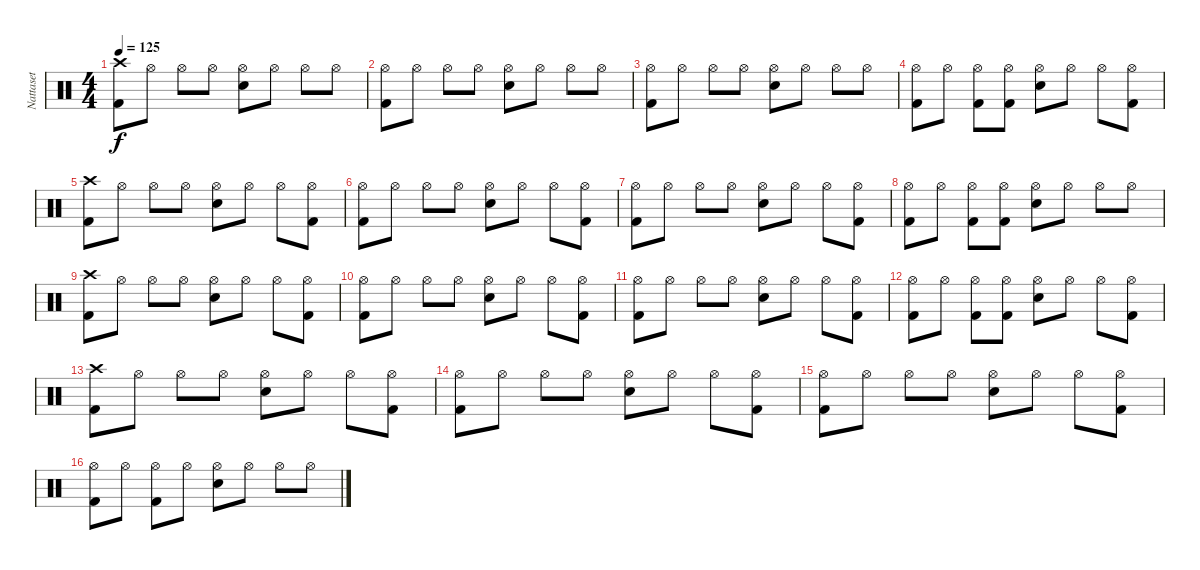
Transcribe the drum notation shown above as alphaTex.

\track ("Nattaset" "Nattaset") {instrument percussion}
\staff {score}
\articulation defaults
\ts (4 4)
\tempo 125
\clef neutral
\ks c
("Kick (hit) 2" "Crash high (hit)").8{dy f} "Hi-Hat (open)".8 "Hi-Hat (open)".8 "Hi-Hat (open)".8 ("Snare (hit) 2" "Hi-Hat (open)").8 "Hi-Hat (open)".8 "Hi-Hat (open)".8 "Hi-Hat (open)".8 |
("Kick (hit) 2" "Hi-Hat (open)").8 "Hi-Hat (open)".8 "Hi-Hat (open)".8 "Hi-Hat (open)".8 ("Snare (hit) 2" "Hi-Hat (open)").8 "Hi-Hat (open)".8 "Hi-Hat (open)".8 "Hi-Hat (open)".8 |
("Kick (hit) 2" "Hi-Hat (open)").8 "Hi-Hat (open)".8 "Hi-Hat (open)".8 "Hi-Hat (open)".8 ("Snare (hit) 2" "Hi-Hat (open)").8 "Hi-Hat (open)".8 "Hi-Hat (open)".8 "Hi-Hat (open)".8 |
("Kick (hit) 2" "Hi-Hat (open)").8 "Hi-Hat (open)".8 ("Kick (hit) 2" "Hi-Hat (open)").8 ("Kick (hit) 2" "Hi-Hat (open)").8 ("Snare (hit) 2" "Hi-Hat (open)").8 "Hi-Hat (open)".8 "Hi-Hat (open)".8 ("Kick (hit) 2" "Hi-Hat (open)").8 |
("Kick (hit) 2" "Crash high (hit)").8 "Hi-Hat (open)".8 "Hi-Hat (open)".8 "Hi-Hat (open)".8 ("Snare (hit) 2" "Hi-Hat (open)").8 "Hi-Hat (open)".8 "Hi-Hat (open)".8 ("Kick (hit) 2" "Hi-Hat (open)").8 |
("Kick (hit) 2" "Hi-Hat (open)").8 "Hi-Hat (open)".8 "Hi-Hat (open)".8 "Hi-Hat (open)".8 ("Snare (hit) 2" "Hi-Hat (open)").8 "Hi-Hat (open)".8 "Hi-Hat (open)".8 ("Kick (hit) 2" "Hi-Hat (open)").8 |
("Kick (hit) 2" "Hi-Hat (open)").8 "Hi-Hat (open)".8 "Hi-Hat (open)".8 "Hi-Hat (open)".8 ("Snare (hit) 2" "Hi-Hat (open)").8 "Hi-Hat (open)".8 "Hi-Hat (open)".8 ("Kick (hit) 2" "Hi-Hat (open)").8 |
("Kick (hit) 2" "Hi-Hat (open)").8 "Hi-Hat (open)".8 ("Kick (hit) 2" "Hi-Hat (open)").8 ("Kick (hit) 2" "Hi-Hat (open)").8 ("Snare (hit) 2" "Hi-Hat (open)").8 "Hi-Hat (open)".8 "Hi-Hat (open)".8 "Hi-Hat (open)".8 |
("Kick (hit) 2" "Crash high (hit)").8 "Hi-Hat (open)".8 "Hi-Hat (open)".8 "Hi-Hat (open)".8 ("Snare (hit) 2" "Hi-Hat (open)").8 "Hi-Hat (open)".8 "Hi-Hat (open)".8 ("Kick (hit) 2" "Hi-Hat (open)").8 |
("Kick (hit) 2" "Hi-Hat (open)").8 "Hi-Hat (open)".8 "Hi-Hat (open)".8 "Hi-Hat (open)".8 ("Snare (hit) 2" "Hi-Hat (open)").8 "Hi-Hat (open)".8 "Hi-Hat (open)".8 ("Kick (hit) 2" "Hi-Hat (open)").8 |
("Kick (hit) 2" "Hi-Hat (open)").8 "Hi-Hat (open)".8 "Hi-Hat (open)".8 "Hi-Hat (open)".8 ("Snare (hit) 2" "Hi-Hat (open)").8 "Hi-Hat (open)".8 "Hi-Hat (open)".8 ("Kick (hit) 2" "Hi-Hat (open)").8 |
("Kick (hit) 2" "Hi-Hat (open)").8 "Hi-Hat (open)".8 ("Kick (hit) 2" "Hi-Hat (open)").8 ("Kick (hit) 2" "Hi-Hat (open)").8 ("Snare (hit) 2" "Hi-Hat (open)").8 "Hi-Hat (open)".8 "Hi-Hat (open)".8 ("Kick (hit) 2" "Hi-Hat (open)").8 |
("Kick (hit) 2" "Crash high (hit)").8 "Hi-Hat (open)".8 "Hi-Hat (open)".8 "Hi-Hat (open)".8 ("Snare (hit) 2" "Hi-Hat (open)").8 "Hi-Hat (open)".8 "Hi-Hat (open)".8 ("Kick (hit) 2" "Hi-Hat (open)").8 |
("Kick (hit) 2" "Hi-Hat (open)").8 "Hi-Hat (open)".8 "Hi-Hat (open)".8 "Hi-Hat (open)".8 ("Snare (hit) 2" "Hi-Hat (open)").8 "Hi-Hat (open)".8 "Hi-Hat (open)".8 ("Kick (hit) 2" "Hi-Hat (open)").8 |
("Kick (hit) 2" "Hi-Hat (open)").8 "Hi-Hat (open)".8 "Hi-Hat (open)".8 "Hi-Hat (open)".8 ("Snare (hit) 2" "Hi-Hat (open)").8 "Hi-Hat (open)".8 "Hi-Hat (open)".8 ("Kick (hit) 2" "Hi-Hat (open)").8 |
("Kick (hit) 2" "Hi-Hat (open)").8 "Hi-Hat (open)".8 ("Kick (hit) 2" "Hi-Hat (open)").8 "Hi-Hat (open)".8 ("Snare (hit) 2" "Hi-Hat (open)").8 "Hi-Hat (open)".8 "Hi-Hat (open)".8 "Hi-Hat (open)".8
